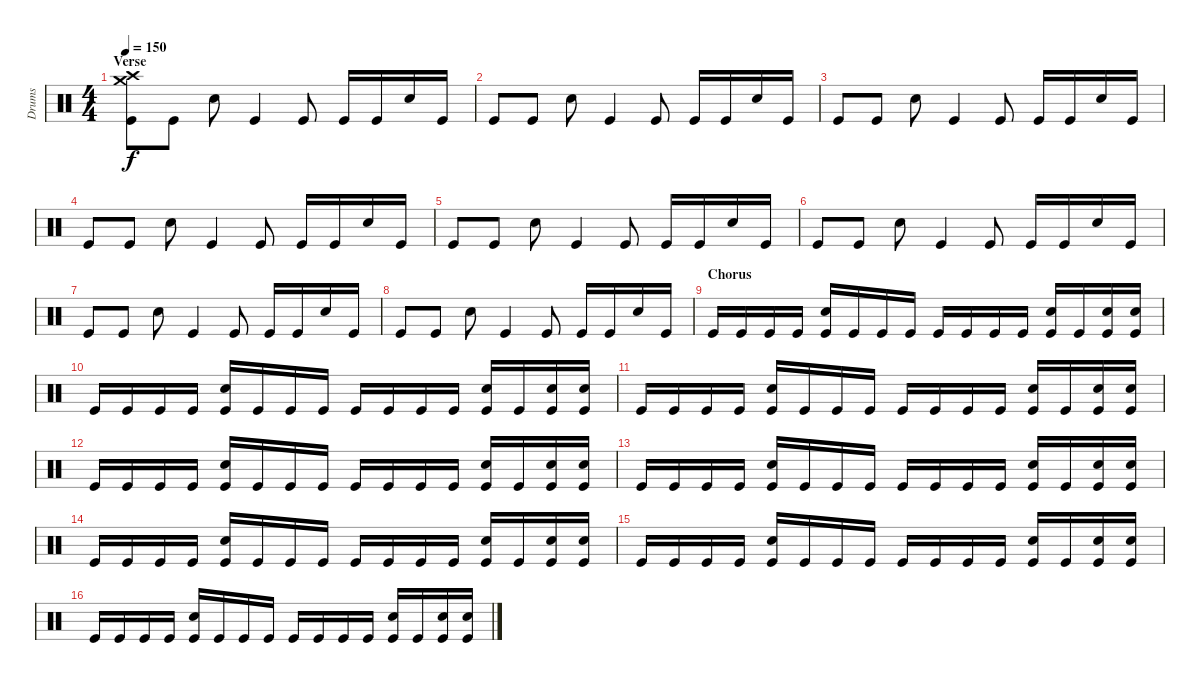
\track ("Drums" "Drums") {instrument percussion}
\staff {score}
\articulation defaults
\ts (4 4)
\section ("" "Verse")
\tempo 150
\clef neutral
\ks c
("Crash high (hit)" "Crash medium (hit)" "Kick (hit)").8{dy f} "Kick (hit)".8 "Electric Snare (hit)".8 "Kick (hit)".4 "Kick (hit)".8 "Kick (hit)".16 "Kick (hit)".16 "Electric Snare (hit)".16 "Kick (hit)".16 |
"Kick (hit)".8 "Kick (hit)".8 "Electric Snare (hit)".8 "Kick (hit)".4 "Kick (hit)".8 "Kick (hit)".16 "Kick (hit)".16 "Electric Snare (hit)".16 "Kick (hit)".16 |
"Kick (hit)".8 "Kick (hit)".8 "Electric Snare (hit)".8 "Kick (hit)".4 "Kick (hit)".8 "Kick (hit)".16 "Kick (hit)".16 "Electric Snare (hit)".16 "Kick (hit)".16 |
"Kick (hit)".8 "Kick (hit)".8 "Electric Snare (hit)".8 "Kick (hit)".4 "Kick (hit)".8 "Kick (hit)".16 "Kick (hit)".16 "Electric Snare (hit)".16 "Kick (hit)".16 |
"Kick (hit)".8 "Kick (hit)".8 "Electric Snare (hit)".8 "Kick (hit)".4 "Kick (hit)".8 "Kick (hit)".16 "Kick (hit)".16 "Electric Snare (hit)".16 "Kick (hit)".16 |
"Kick (hit)".8 "Kick (hit)".8 "Electric Snare (hit)".8 "Kick (hit)".4 "Kick (hit)".8 "Kick (hit)".16 "Kick (hit)".16 "Electric Snare (hit)".16 "Kick (hit)".16 |
"Kick (hit)".8 "Kick (hit)".8 "Electric Snare (hit)".8 "Kick (hit)".4 "Kick (hit)".8 "Kick (hit)".16 "Kick (hit)".16 "Electric Snare (hit)".16 "Kick (hit)".16 |
"Kick (hit)".8 "Kick (hit)".8 "Electric Snare (hit)".8 "Kick (hit)".4 "Kick (hit)".8 "Kick (hit)".16 "Kick (hit)".16 "Electric Snare (hit)".16 "Kick (hit)".16 |
\section ("" "Chorus")
"Kick (hit)".16 "Kick (hit)".16 "Kick (hit)".16 "Kick (hit)".16 ("Electric Snare (hit)" "Kick (hit)").16 "Kick (hit)".16 "Kick (hit)".16 "Kick (hit)".16 "Kick (hit)".16 "Kick (hit)".16 "Kick (hit)".16 "Kick (hit)".16 ("Electric Snare (hit)" "Kick (hit)").16 "Kick (hit)".16 ("Electric Snare (hit)" "Kick (hit)").16 ("Electric Snare (hit)" "Kick (hit)").16 |
"Kick (hit)".16 "Kick (hit)".16 "Kick (hit)".16 "Kick (hit)".16 ("Electric Snare (hit)" "Kick (hit)").16 "Kick (hit)".16 "Kick (hit)".16 "Kick (hit)".16 "Kick (hit)".16 "Kick (hit)".16 "Kick (hit)".16 "Kick (hit)".16 ("Electric Snare (hit)" "Kick (hit)").16 "Kick (hit)".16 ("Electric Snare (hit)" "Kick (hit)").16 ("Electric Snare (hit)" "Kick (hit)").16 |
"Kick (hit)".16 "Kick (hit)".16 "Kick (hit)".16 "Kick (hit)".16 ("Electric Snare (hit)" "Kick (hit)").16 "Kick (hit)".16 "Kick (hit)".16 "Kick (hit)".16 "Kick (hit)".16 "Kick (hit)".16 "Kick (hit)".16 "Kick (hit)".16 ("Electric Snare (hit)" "Kick (hit)").16 "Kick (hit)".16 ("Electric Snare (hit)" "Kick (hit)").16 ("Electric Snare (hit)" "Kick (hit)").16 |
"Kick (hit)".16 "Kick (hit)".16 "Kick (hit)".16 "Kick (hit)".16 ("Electric Snare (hit)" "Kick (hit)").16 "Kick (hit)".16 "Kick (hit)".16 "Kick (hit)".16 "Kick (hit)".16 "Kick (hit)".16 "Kick (hit)".16 "Kick (hit)".16 ("Electric Snare (hit)" "Kick (hit)").16 "Kick (hit)".16 ("Electric Snare (hit)" "Kick (hit)").16 ("Electric Snare (hit)" "Kick (hit)").16 |
"Kick (hit)".16 "Kick (hit)".16 "Kick (hit)".16 "Kick (hit)".16 ("Electric Snare (hit)" "Kick (hit)").16 "Kick (hit)".16 "Kick (hit)".16 "Kick (hit)".16 "Kick (hit)".16 "Kick (hit)".16 "Kick (hit)".16 "Kick (hit)".16 ("Electric Snare (hit)" "Kick (hit)").16 "Kick (hit)".16 ("Electric Snare (hit)" "Kick (hit)").16 ("Electric Snare (hit)" "Kick (hit)").16 |
"Kick (hit)".16 "Kick (hit)".16 "Kick (hit)".16 "Kick (hit)".16 ("Electric Snare (hit)" "Kick (hit)").16 "Kick (hit)".16 "Kick (hit)".16 "Kick (hit)".16 "Kick (hit)".16 "Kick (hit)".16 "Kick (hit)".16 "Kick (hit)".16 ("Electric Snare (hit)" "Kick (hit)").16 "Kick (hit)".16 ("Electric Snare (hit)" "Kick (hit)").16 ("Electric Snare (hit)" "Kick (hit)").16 |
"Kick (hit)".16 "Kick (hit)".16 "Kick (hit)".16 "Kick (hit)".16 ("Electric Snare (hit)" "Kick (hit)").16 "Kick (hit)".16 "Kick (hit)".16 "Kick (hit)".16 "Kick (hit)".16 "Kick (hit)".16 "Kick (hit)".16 "Kick (hit)".16 ("Electric Snare (hit)" "Kick (hit)").16 "Kick (hit)".16 ("Electric Snare (hit)" "Kick (hit)").16 ("Electric Snare (hit)" "Kick (hit)").16 |
"Kick (hit)".16 "Kick (hit)".16 "Kick (hit)".16 "Kick (hit)".16 ("Electric Snare (hit)" "Kick (hit)").16 "Kick (hit)".16 "Kick (hit)".16 "Kick (hit)".16 "Kick (hit)".16 "Kick (hit)".16 "Kick (hit)".16 "Kick (hit)".16 ("Electric Snare (hit)" "Kick (hit)").16 "Kick (hit)".16 ("Electric Snare (hit)" "Kick (hit)").16 ("Electric Snare (hit)" "Kick (hit)").16
